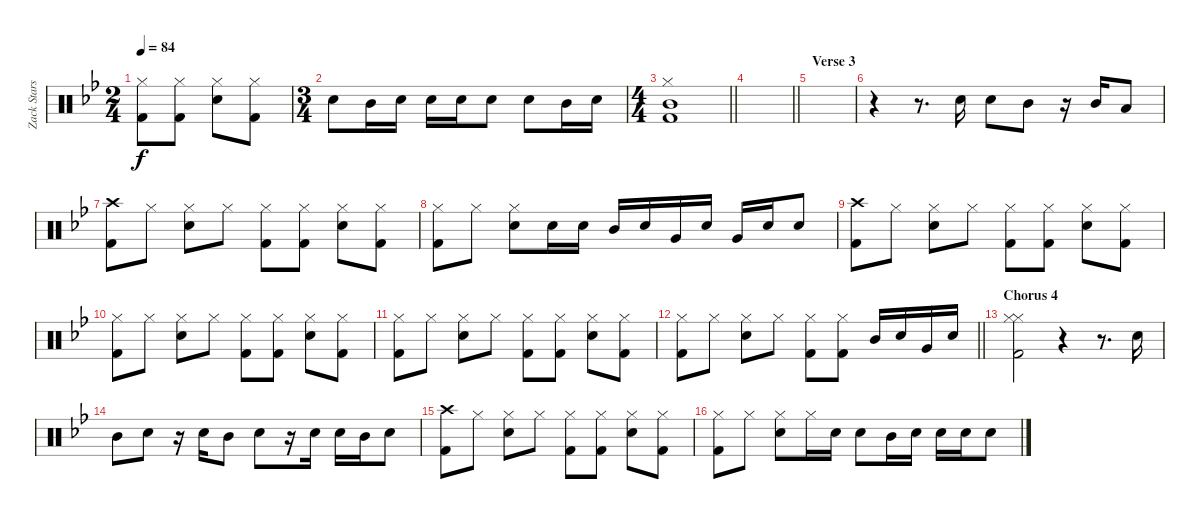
\track ("Zack Starskey" "Zack Stars") {instrument percussion}
\staff {score}
\articulation defaults
\ts (2 4)
\tempo 84
\clef neutral
\ks bb
("Hi-Hat (closed)" "Kick (hit) 2").8{dy f} ("Hi-Hat (closed)" "Kick (hit) 2").8 ("Hi-Hat (closed)" "Snare (hit) 2").8 ("Hi-Hat (closed)" "Kick (hit) 2").8 |
\ts (3 4)
"Snare (hit) 2".8 "Mid Tom (hit)".16 "Snare (hit) 2".16 "Snare (hit) 2".16 "Snare (hit) 2".16 "Snare (hit) 2".8 "Snare (hit) 2".8 "Mid Tom (hit)".16 "Snare (hit) 2".16 |
\ts (4 4)
\barLineRight lightlight
("Hi-Hat (closed)" "Mid Tom (hit)" "Kick (hit) 2").1 |
\barLineRight lightlight
|
\section ("" "Verse 3")
|
r.4 r.8{d} "Snare (hit) 2".16 "Snare (hit) 2".8 "Mid Tom (hit)".8 r.16 "Mid Tom (hit)".16 "Low Floor Tom (hit)".8 |
("Crash high (hit)" "Kick (hit) 2").8 "Hi-Hat (closed)".8 ("Hi-Hat (closed)" "Snare (hit) 2").8 "Hi-Hat (closed)".8 ("Hi-Hat (closed)" "Kick (hit) 2").8 ("Hi-Hat (closed)" "Kick (hit) 2").8 ("Hi-Hat (closed)" "Snare (hit) 2").8 ("Hi-Hat (closed)" "Kick (hit) 2").8 |
("Hi-Hat (closed)" "Kick (hit) 2").8 "Hi-Hat (closed)".8 ("Hi-Hat (closed)" "Snare (hit) 2").8 "Snare (hit) 2".16 "Snare (hit) 2".16 "Mid Tom (hit)".16 "Snare (hit) 2".16 "Very Low Tom (hit)".16 "Snare (hit) 2".16 "Very Low Tom (hit)".16 "Snare (hit) 2".16 "Snare (hit) 2".8 |
("Crash high (hit)" "Kick (hit) 2").8 "Hi-Hat (closed)".8 ("Hi-Hat (closed)" "Snare (hit) 2").8 "Hi-Hat (closed)".8 ("Hi-Hat (closed)" "Kick (hit) 2").8 ("Hi-Hat (closed)" "Kick (hit) 2").8 ("Hi-Hat (closed)" "Snare (hit) 2").8 ("Hi-Hat (closed)" "Kick (hit) 2").8 |
("Hi-Hat (closed)" "Kick (hit) 2").8 "Hi-Hat (closed)".8 ("Hi-Hat (closed)" "Snare (hit) 2").8 "Hi-Hat (closed)".8 ("Hi-Hat (closed)" "Kick (hit) 2").8 ("Hi-Hat (closed)" "Kick (hit) 2").8 ("Hi-Hat (closed)" "Snare (hit) 2").8 ("Hi-Hat (closed)" "Kick (hit) 2").8 |
("Hi-Hat (closed)" "Kick (hit) 2").8 "Hi-Hat (closed)".8 ("Hi-Hat (closed)" "Snare (hit) 2").8 "Hi-Hat (closed)".8 ("Hi-Hat (closed)" "Kick (hit) 2").8 ("Hi-Hat (closed)" "Kick (hit) 2").8 ("Hi-Hat (closed)" "Snare (hit) 2").8 ("Hi-Hat (closed)" "Kick (hit) 2").8 |
\barLineRight lightlight
("Hi-Hat (closed)" "Kick (hit) 2").8 "Hi-Hat (closed)".8 ("Hi-Hat (closed)" "Snare (hit) 2").8 "Hi-Hat (closed)".8 ("Hi-Hat (closed)" "Kick (hit) 2").8 ("Hi-Hat (closed)" "Kick (hit) 2").8 "Mid Tom (hit)".16 "Snare (hit) 2".16 "Very Low Tom (hit)".16 "Snare (hit) 2".16 |
\section ("" "Chorus 4")
("Hi-Hat (closed)" "Hi-Hat (closed)" "Kick (hit) 2").2 r.4 r.8{d} "Snare (hit) 2".16 |
"Mid Tom (hit)".8 "Snare (hit) 2".8 r.16 "Snare (hit) 2".16 "Mid Tom (hit)".8 "Snare (hit) 2".8 r.16 "Snare (hit) 2".16 "Snare (hit) 2".16 "Mid Tom (hit)".16 "Snare (hit) 2".8 |
("Crash high (hit)" "Kick (hit) 2").8 "Hi-Hat (closed)".8 ("Hi-Hat (closed)" "Snare (hit) 2").8 "Hi-Hat (closed)".8 ("Hi-Hat (closed)" "Kick (hit) 2").8 ("Hi-Hat (closed)" "Kick (hit) 2").8 ("Hi-Hat (closed)" "Snare (hit) 2").8 ("Hi-Hat (closed)" "Kick (hit) 2").8 |
("Hi-Hat (closed)" "Kick (hit) 2").8 "Hi-Hat (closed)".8 ("Hi-Hat (closed)" "Snare (hit) 2").8 "Hi-Hat (closed)".16 "Snare (hit) 2".16 "Snare (hit) 2".8 "Mid Tom (hit)".16 "Snare (hit) 2".16 "Snare (hit) 2".16 "Snare (hit) 2".16 "Snare (hit) 2".8
